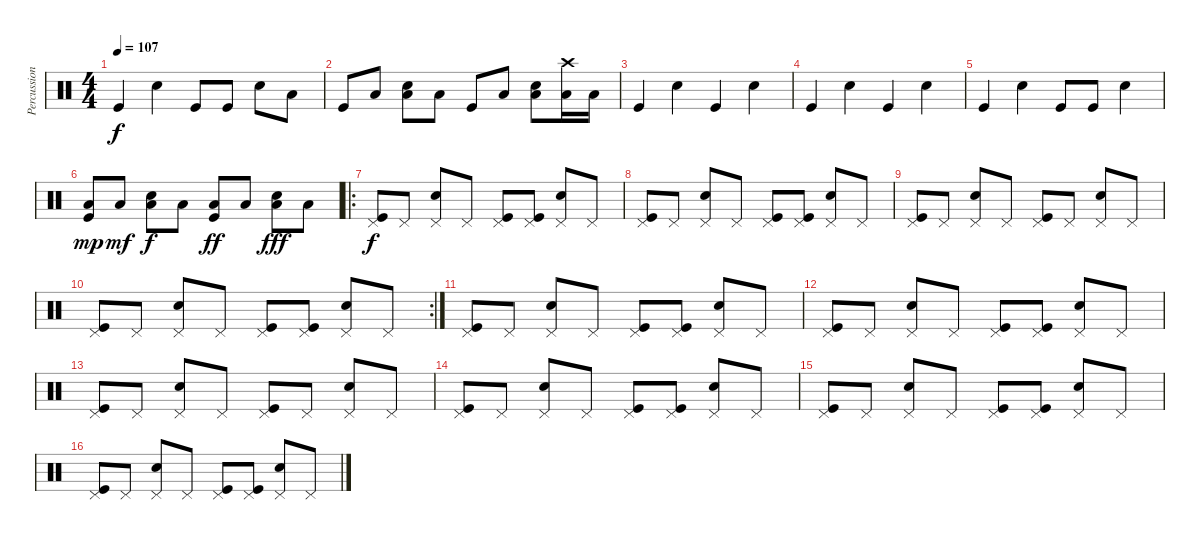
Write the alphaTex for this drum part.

\track ("Percussion" "Percussion") {instrument percussion}
\staff {score}
\articulation defaults
\ts (4 4)
\tempo 107
\clef neutral
\ks c "Kick (hit)".4{dy f} "Electric Snare (hit)".4 "Kick (hit)".8 "Kick (hit)".8 "Electric Snare (hit)".8 "Low Tom (hit)".8
|
"Kick (hit)".8 "Low Tom (hit)".8 ("Low Tom (hit)" "Electric Snare (hit)").8 "Low Tom (hit)".8 "Kick (hit)".8 "Low Tom (hit)".8 ("Low Tom (hit)" "Electric Snare (hit)").8 ("Crash high (hit)" "Low Tom (hit)").16 "Low Tom (hit)".16 |
"Kick (hit)".4 "Electric Snare (hit)".4 "Kick (hit)".4 "Electric Snare (hit)".4 |
"Kick (hit)".4 "Electric Snare (hit)".4 "Kick (hit)".4 "Electric Snare (hit)".4 |
"Kick (hit)".4 "Electric Snare (hit)".4 "Kick (hit)".8 "Kick (hit)".8 "Electric Snare (hit)".4 |
("Kick (hit)" "Low Tom (hit)").8{dy mp} "Low Tom (hit)".8{dy mf} ("Electric Snare (hit)" "Low Tom (hit)").8{dy f} "Low Tom (hit)".8 ("Kick (hit)" "Low Tom (hit)").8{dy ff} "Low Tom (hit)".8 ("Electric Snare (hit)" "Low Tom (hit)").8{dy fff} "Low Tom (hit)".8 |
\ro
("Pedal Hi-Hat (hit)" "Kick (hit)").8{dy f} "Pedal Hi-Hat (hit)".8 ("Pedal Hi-Hat (hit)" "Electric Snare (hit)").8 "Pedal Hi-Hat (hit)".8 ("Pedal Hi-Hat (hit)" "Kick (hit)").8 ("Pedal Hi-Hat (hit)" "Kick (hit)").8 ("Pedal Hi-Hat (hit)" "Electric Snare (hit)").8 "Pedal Hi-Hat (hit)".8 |
("Pedal Hi-Hat (hit)" "Kick (hit)").8 "Pedal Hi-Hat (hit)".8 ("Pedal Hi-Hat (hit)" "Electric Snare (hit)").8 "Pedal Hi-Hat (hit)".8 ("Pedal Hi-Hat (hit)" "Kick (hit)").8 ("Pedal Hi-Hat (hit)" "Kick (hit)").8 ("Pedal Hi-Hat (hit)" "Electric Snare (hit)").8 "Pedal Hi-Hat (hit)".8 |
("Pedal Hi-Hat (hit)" "Kick (hit)").8 "Pedal Hi-Hat (hit)".8 ("Pedal Hi-Hat (hit)" "Electric Snare (hit)").8 "Pedal Hi-Hat (hit)".8 ("Pedal Hi-Hat (hit)" "Kick (hit)").8 "Pedal Hi-Hat (hit)".8 ("Pedal Hi-Hat (hit)" "Electric Snare (hit)").8 "Pedal Hi-Hat (hit)".8 |
\rc 2
("Pedal Hi-Hat (hit)" "Kick (hit)").8 "Pedal Hi-Hat (hit)".8 ("Pedal Hi-Hat (hit)" "Electric Snare (hit)").8 "Pedal Hi-Hat (hit)".8 ("Pedal Hi-Hat (hit)" "Kick (hit)").8 ("Pedal Hi-Hat (hit)" "Kick (hit)").8 ("Pedal Hi-Hat (hit)" "Electric Snare (hit)").8 "Pedal Hi-Hat (hit)".8 |
("Pedal Hi-Hat (hit)" "Kick (hit)").8 "Pedal Hi-Hat (hit)".8 ("Pedal Hi-Hat (hit)" "Electric Snare (hit)").8 "Pedal Hi-Hat (hit)".8 ("Pedal Hi-Hat (hit)" "Kick (hit)").8 ("Pedal Hi-Hat (hit)" "Kick (hit)").8 ("Pedal Hi-Hat (hit)" "Electric Snare (hit)").8 "Pedal Hi-Hat (hit)".8 |
("Pedal Hi-Hat (hit)" "Kick (hit)").8 "Pedal Hi-Hat (hit)".8 ("Pedal Hi-Hat (hit)" "Electric Snare (hit)").8 "Pedal Hi-Hat (hit)".8 ("Pedal Hi-Hat (hit)" "Kick (hit)").8 ("Pedal Hi-Hat (hit)" "Kick (hit)").8 ("Pedal Hi-Hat (hit)" "Electric Snare (hit)").8 "Pedal Hi-Hat (hit)".8 |
("Pedal Hi-Hat (hit)" "Kick (hit)").8 "Pedal Hi-Hat (hit)".8 ("Pedal Hi-Hat (hit)" "Electric Snare (hit)").8 "Pedal Hi-Hat (hit)".8 ("Pedal Hi-Hat (hit)" "Kick (hit)").8 "Pedal Hi-Hat (hit)".8 ("Pedal Hi-Hat (hit)" "Electric Snare (hit)").8 "Pedal Hi-Hat (hit)".8 |
("Pedal Hi-Hat (hit)" "Kick (hit)").8 "Pedal Hi-Hat (hit)".8 ("Pedal Hi-Hat (hit)" "Electric Snare (hit)").8 "Pedal Hi-Hat (hit)".8 ("Pedal Hi-Hat (hit)" "Kick (hit)").8 ("Pedal Hi-Hat (hit)" "Kick (hit)").8 ("Pedal Hi-Hat (hit)" "Electric Snare (hit)").8 "Pedal Hi-Hat (hit)".8 |
("Pedal Hi-Hat (hit)" "Kick (hit)").8 "Pedal Hi-Hat (hit)".8 ("Pedal Hi-Hat (hit)" "Electric Snare (hit)").8 "Pedal Hi-Hat (hit)".8 ("Pedal Hi-Hat (hit)" "Kick (hit)").8 ("Pedal Hi-Hat (hit)" "Kick (hit)").8 ("Pedal Hi-Hat (hit)" "Electric Snare (hit)").8 "Pedal Hi-Hat (hit)".8 |
("Pedal Hi-Hat (hit)" "Kick (hit)").8 "Pedal Hi-Hat (hit)".8 ("Pedal Hi-Hat (hit)" "Electric Snare (hit)").8 "Pedal Hi-Hat (hit)".8 ("Pedal Hi-Hat (hit)" "Kick (hit)").8 ("Pedal Hi-Hat (hit)" "Kick (hit)").8 ("Pedal Hi-Hat (hit)" "Electric Snare (hit)").8 "Pedal Hi-Hat (hit)".8
